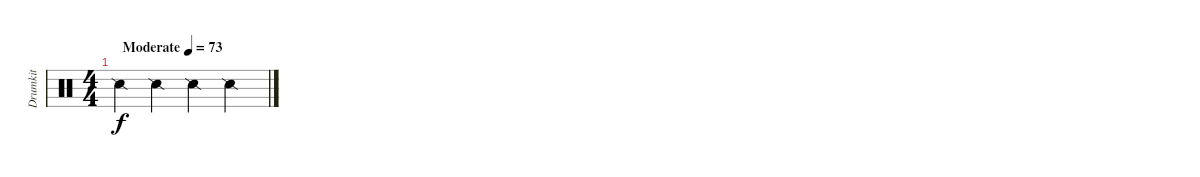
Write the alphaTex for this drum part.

\track ("Drumkit" "Drumkit") {instrument percussion}
\staff {score}
\articulation defaults
\ts (4 4)
\tempo (73 "Moderate")
\clef neutral
\ks c "Snare (side stick) 2".4{dy f} "Snare (side stick) 2".4 "Snare (side stick) 2".4 "Snare (side stick) 2".4
